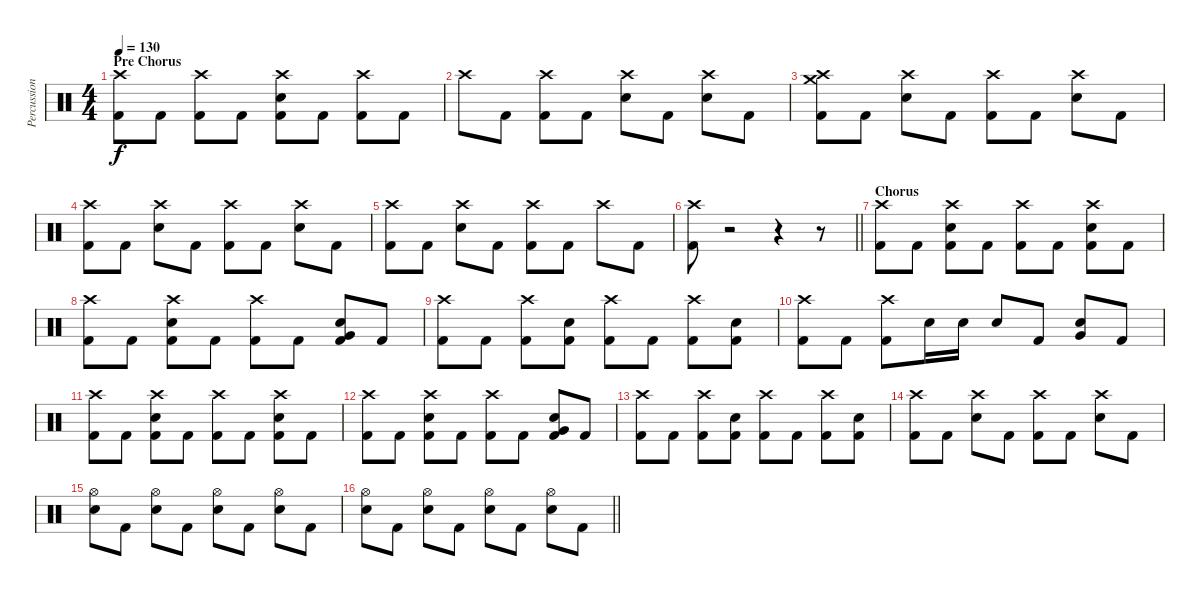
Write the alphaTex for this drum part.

\track ("Percussion" "Percussion") {instrument percussion}
\staff {score}
\articulation defaults
\ts (4 4)
\section ("" "Pre Chorus")
\tempo 130
\clef neutral
\ks c
("Crash high (hit)" "Kick (hit) 2").8{dy f} "Kick (hit) 2".8 ("Crash high (hit)" "Kick (hit) 2").8 "Kick (hit) 2".8 ("Crash high (hit)" "Electric Snare (hit)" "Kick (hit) 2").8 "Kick (hit) 2".8 ("Crash high (hit)" "Kick (hit) 2").8 "Kick (hit) 2".8 |
"Crash high (hit)".8 "Kick (hit) 2".8 ("Crash high (hit)" "Kick (hit) 2").8 "Kick (hit) 2".8 ("Crash high (hit)" "Electric Snare (hit)").8 "Kick (hit) 2".8 ("Crash high (hit)" "Electric Snare (hit)").8 "Kick (hit) 2".8 |
("Crash high (hit)" "Crash medium (hit)" "Kick (hit) 2").8 "Kick (hit) 2".8 ("Crash high (hit)" "Electric Snare (hit)").8 "Kick (hit) 2".8 ("Crash high (hit)" "Kick (hit) 2").8 "Kick (hit) 2".8 ("Crash high (hit)" "Electric Snare (hit)").8 "Kick (hit) 2".8 |
("Crash high (hit)" "Kick (hit) 2").8 "Kick (hit) 2".8 ("Crash high (hit)" "Electric Snare (hit)").8 "Kick (hit) 2".8 ("Crash high (hit)" "Kick (hit) 2").8 "Kick (hit) 2".8 ("Crash high (hit)" "Electric Snare (hit)").8 "Kick (hit) 2".8 |
("Crash high (hit)" "Kick (hit) 2").8 "Kick (hit) 2".8 ("Crash high (hit)" "Electric Snare (hit)").8 "Kick (hit) 2".8 ("Crash high (hit)" "Kick (hit) 2").8 "Kick (hit) 2".8 "Crash high (hit)".8 "Kick (hit) 2".8 |
\barLineRight lightlight
("Crash high (hit)" "Kick (hit) 2").8 r.2 r.4 r.8 |
\section ("" "Chorus")
("Crash high (hit)" "Kick (hit) 2").8 "Kick (hit) 2".8 ("Crash high (hit)" "Electric Snare (hit)" "Kick (hit) 2").8 "Kick (hit) 2".8 ("Crash high (hit)" "Kick (hit) 2").8 "Kick (hit) 2".8 ("Crash high (hit)" "Electric Snare (hit)" "Kick (hit) 2").8 "Kick (hit) 2".8 |
("Crash high (hit)" "Kick (hit) 2").8 "Kick (hit) 2".8 ("Crash high (hit)" "Electric Snare (hit)" "Kick (hit) 2").8 "Kick (hit) 2".8 ("Crash high (hit)" "Kick (hit) 2").8 "Kick (hit) 2".8 ("Very Low Tom (hit)" "Electric Snare (hit)" "Kick (hit) 2").8 "Kick (hit) 2".8 |
("Crash high (hit)" "Kick (hit) 2").8 "Kick (hit) 2".8 ("Crash high (hit)" "Kick (hit) 2").8 ("Electric Snare (hit)" "Kick (hit) 2").8 ("Crash high (hit)" "Kick (hit) 2").8 "Kick (hit) 2".8 ("Crash high (hit)" "Kick (hit) 2").8 ("Electric Snare (hit)" "Kick (hit) 2").8 |
("Crash high (hit)" "Kick (hit) 2").8 "Kick (hit) 2".8 ("Crash high (hit)" "Kick (hit) 2").8 "Electric Snare (hit)".16 "Electric Snare (hit)".16 "Electric Snare (hit)".8 "Kick (hit) 2".8 ("Very Low Tom (hit)" "Electric Snare (hit)").8 "Kick (hit) 2".8 |
("Crash high (hit)" "Kick (hit) 2").8 "Kick (hit) 2".8 ("Crash high (hit)" "Electric Snare (hit)" "Kick (hit) 2").8 "Kick (hit) 2".8 ("Crash high (hit)" "Kick (hit) 2").8 "Kick (hit) 2".8 ("Crash high (hit)" "Electric Snare (hit)" "Kick (hit) 2").8 "Kick (hit) 2".8 |
("Crash high (hit)" "Kick (hit) 2").8 "Kick (hit) 2".8 ("Crash high (hit)" "Electric Snare (hit)" "Kick (hit) 2").8 "Kick (hit) 2".8 ("Crash high (hit)" "Kick (hit) 2").8 "Kick (hit) 2".8 ("Very Low Tom (hit)" "Electric Snare (hit)" "Kick (hit) 2").8 "Kick (hit) 2".8 |
("Crash high (hit)" "Kick (hit) 2").8 "Kick (hit) 2".8 ("Crash high (hit)" "Kick (hit) 2").8 ("Electric Snare (hit)" "Kick (hit) 2").8 ("Crash high (hit)" "Kick (hit) 2").8 "Kick (hit) 2".8 ("Crash high (hit)" "Kick (hit) 2").8 ("Electric Snare (hit)" "Kick (hit) 2").8 |
("Crash high (hit)" "Kick (hit) 2").8 "Kick (hit) 2".8 ("Crash high (hit)" "Electric Snare (hit)").8 "Kick (hit) 2".8 ("Crash high (hit)" "Kick (hit) 2").8 "Kick (hit) 2".8 ("Crash high (hit)" "Electric Snare (hit)").8 "Kick (hit) 2".8 |
("Hi-Hat (open)" "Electric Snare (hit)").8 "Kick (hit) 2".8 ("Hi-Hat (open)" "Electric Snare (hit)").8 "Kick (hit) 2".8 ("Hi-Hat (open)" "Electric Snare (hit)").8 "Kick (hit) 2".8 ("Hi-Hat (open)" "Electric Snare (hit)").8 "Kick (hit) 2".8 |
\barLineRight lightlight
("Hi-Hat (open)" "Electric Snare (hit)").8 "Kick (hit) 2".8 ("Hi-Hat (open)" "Electric Snare (hit)").8 "Kick (hit) 2".8 ("Hi-Hat (open)" "Electric Snare (hit)").8 "Kick (hit) 2".8 ("Hi-Hat (open)" "Electric Snare (hit)").8 "Kick (hit) 2".8
